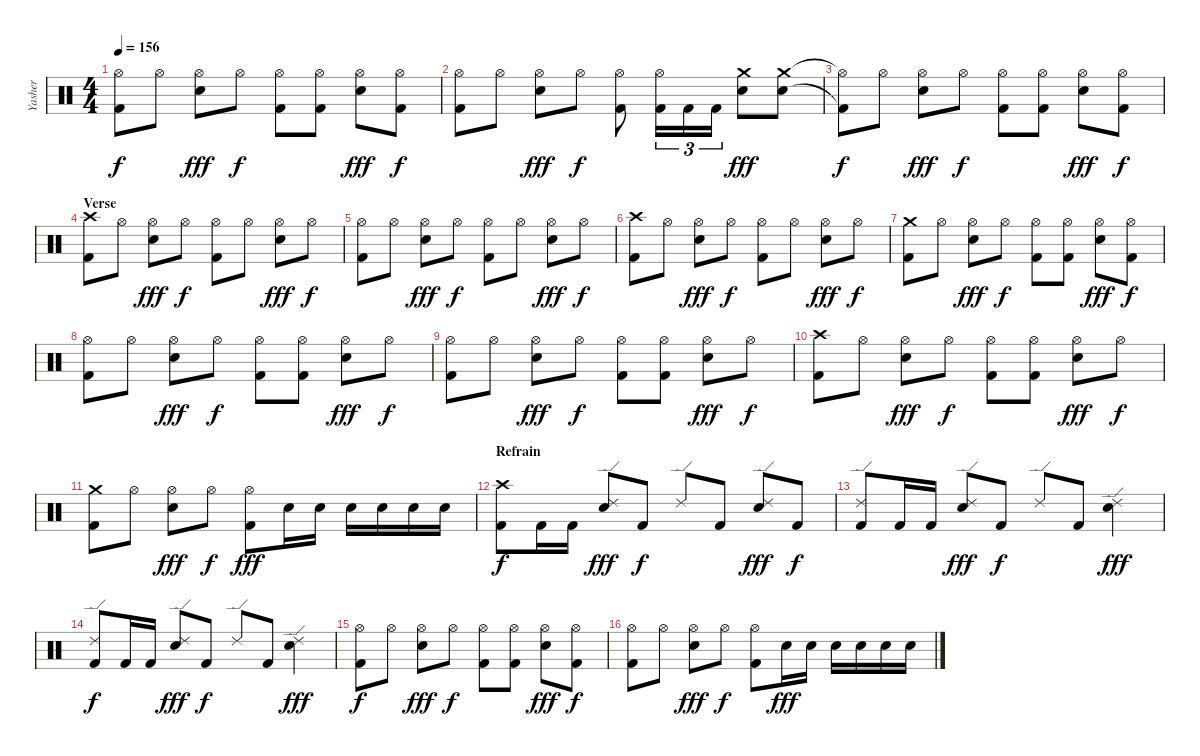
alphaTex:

\track ("Yasher" "Yasher") {instrument percussion}
\staff {score}
\articulation defaults
\ts (4 4)
\tempo 156
\clef neutral
\ks c
("Hi-Hat (open)" "Kick (hit) 2").8{dy f} "Hi-Hat (open)".8 ("Hi-Hat (open)" "Electric Snare (hit)").8{dy fff} "Hi-Hat (open)".8{dy f} ("Hi-Hat (open)" "Kick (hit) 2").8 ("Hi-Hat (open)" "Kick (hit) 2").8 ("Hi-Hat (open)" "Electric Snare (hit)").8{dy fff} ("Hi-Hat (open)" "Kick (hit) 2").8{dy f} |
("Hi-Hat (open)" "Kick (hit) 2").8 "Hi-Hat (open)".8 ("Hi-Hat (open)" "Electric Snare (hit)").8{dy fff} "Hi-Hat (open)".8{dy f} ("Hi-Hat (open)" "Kick (hit) 2").8 ("Hi-Hat (open)" "Kick (hit) 2").16{tu (3 2)} "Kick (hit) 2".16{tu (3 2)} "Kick (hit) 2".16{tu (3 2)} ("Crash medium (hit)" "Electric Snare (hit)").8{dy fff} ("Crash medium (hit)" "Electric Snare (hit)").8 |
("Hi-Hat (open)"{t} "Kick (hit) 2"{t}).8{dy f} "Hi-Hat (open)".8 ("Hi-Hat (open)" "Electric Snare (hit)").8{dy fff} "Hi-Hat (open)".8{dy f} ("Hi-Hat (open)" "Kick (hit) 2").8 ("Hi-Hat (open)" "Kick (hit) 2").8 ("Hi-Hat (open)" "Electric Snare (hit)").8{dy fff} ("Hi-Hat (open)" "Kick (hit) 2").8{dy f} |
\section ("" "Verse")
("Crash high (hit)" "Kick (hit) 2").8 "Hi-Hat (open)".8 ("Hi-Hat (open)" "Electric Snare (hit)").8{dy fff} "Hi-Hat (open)".8{dy f} ("Hi-Hat (open)" "Kick (hit) 2").8 "Hi-Hat (open)".8 ("Hi-Hat (open)" "Electric Snare (hit)").8{dy fff} "Hi-Hat (open)".8{dy f} |
("Hi-Hat (open)" "Kick (hit) 2").8 "Hi-Hat (open)".8 ("Hi-Hat (open)" "Electric Snare (hit)").8{dy fff} "Hi-Hat (open)".8{dy f} ("Hi-Hat (open)" "Kick (hit) 2").8 "Hi-Hat (open)".8 ("Hi-Hat (open)" "Electric Snare (hit)").8{dy fff} "Hi-Hat (open)".8{dy f} |
("Crash high (hit)" "Kick (hit) 2").8 "Hi-Hat (open)".8 ("Hi-Hat (open)" "Electric Snare (hit)").8{dy fff} "Hi-Hat (open)".8{dy f} ("Hi-Hat (open)" "Kick (hit) 2").8 "Hi-Hat (open)".8 ("Hi-Hat (open)" "Electric Snare (hit)").8{dy fff} "Hi-Hat (open)".8{dy f} |
("Crash medium (hit)" "Kick (hit) 2").8 "Hi-Hat (open)".8 ("Hi-Hat (open)" "Electric Snare (hit)").8{dy fff} "Hi-Hat (open)".8{dy f} ("Hi-Hat (open)" "Kick (hit) 2").8 ("Hi-Hat (open)" "Kick (hit) 2").8 ("Hi-Hat (open)" "Electric Snare (hit)").8{dy fff} ("Hi-Hat (open)" "Kick (hit) 2").8{dy f} |
("Hi-Hat (open)" "Kick (hit) 2").8 "Hi-Hat (open)".8 ("Hi-Hat (open)" "Electric Snare (hit)").8{dy fff} "Hi-Hat (open)".8{dy f} ("Hi-Hat (open)" "Kick (hit) 2").8 ("Hi-Hat (open)" "Kick (hit) 2").8 ("Hi-Hat (open)" "Electric Snare (hit)").8{dy fff} "Hi-Hat (open)".8{dy f} |
("Hi-Hat (open)" "Kick (hit) 2").8 "Hi-Hat (open)".8 ("Hi-Hat (open)" "Electric Snare (hit)").8{dy fff} "Hi-Hat (open)".8{dy f} ("Hi-Hat (open)" "Kick (hit) 2").8 ("Hi-Hat (open)" "Kick (hit) 2").8 ("Hi-Hat (open)" "Electric Snare (hit)").8{dy fff} "Hi-Hat (open)".8{dy f} |
("Crash high (hit)" "Kick (hit) 2").8 "Hi-Hat (open)".8 ("Hi-Hat (open)" "Electric Snare (hit)").8{dy fff} "Hi-Hat (open)".8{dy f} ("Hi-Hat (open)" "Kick (hit) 2").8 ("Hi-Hat (open)" "Kick (hit) 2").8 ("Hi-Hat (open)" "Electric Snare (hit)").8{dy fff} "Hi-Hat (open)".8{dy f} |
("Crash medium (hit)" "Kick (hit) 2").8 "Hi-Hat (open)".8 ("Hi-Hat (open)" "Electric Snare (hit)").8{dy fff} "Hi-Hat (open)".8{dy f} ("Hi-Hat (open)" "Kick (hit) 2").8{dy fff} "Electric Snare (hit)".16 "Electric Snare (hit)".16 "Electric Snare (hit)".16 "Electric Snare (hit)".16 "Electric Snare (hit)".16 "Electric Snare (hit)".16 |
\section ("" "Refrain")
("Crash high (hit)" "Kick (hit) 2").8{dy f} "Kick (hit) 2".16 "Kick (hit) 2".16 ("Ride (edge) 2" "Electric Snare (hit)").8{dy fff} "Kick (hit) 2".8{dy f} "Ride (edge) 2".8 "Kick (hit) 2".8 ("Ride (edge) 2" "Electric Snare (hit)").8{dy fff} "Kick (hit) 2".8{dy f} |
("Ride (edge) 2" "Kick (hit) 2").8 "Kick (hit) 2".16 "Kick (hit) 2".16 ("Ride (edge) 2" "Electric Snare (hit)").8{dy fff} "Kick (hit) 2".8{dy f} "Ride (edge) 2".8 "Kick (hit) 2".8 ("Ride (edge) 2" "Electric Snare (hit)").4{dy fff} |
("Ride (edge) 2" "Kick (hit) 2").8{dy f} "Kick (hit) 2".16 "Kick (hit) 2".16 ("Ride (edge) 2" "Electric Snare (hit)").8{dy fff} "Kick (hit) 2".8{dy f} "Ride (edge) 2".8 "Kick (hit) 2".8 ("Ride (edge) 2" "Electric Snare (hit)").4{dy fff} |
("Hi-Hat (open)" "Kick (hit) 2").8{dy f} "Hi-Hat (open)".8 ("Hi-Hat (open)" "Electric Snare (hit)").8{dy fff} "Hi-Hat (open)".8{dy f} ("Hi-Hat (open)" "Kick (hit) 2").8 ("Hi-Hat (open)" "Kick (hit) 2").8 ("Hi-Hat (open)" "Electric Snare (hit)").8{dy fff} ("Hi-Hat (open)" "Kick (hit) 2").8{dy f} |
("Hi-Hat (open)" "Kick (hit) 2").8 "Hi-Hat (open)".8 ("Hi-Hat (open)" "Electric Snare (hit)").8{dy fff} "Hi-Hat (open)".8{dy f} ("Hi-Hat (open)" "Kick (hit) 2").8 "Electric Snare (hit)".16{dy fff} "Electric Snare (hit)".16 "Electric Snare (hit)".16 "Electric Snare (hit)".16 "Electric Snare (hit)".16 "Electric Snare (hit)".16
